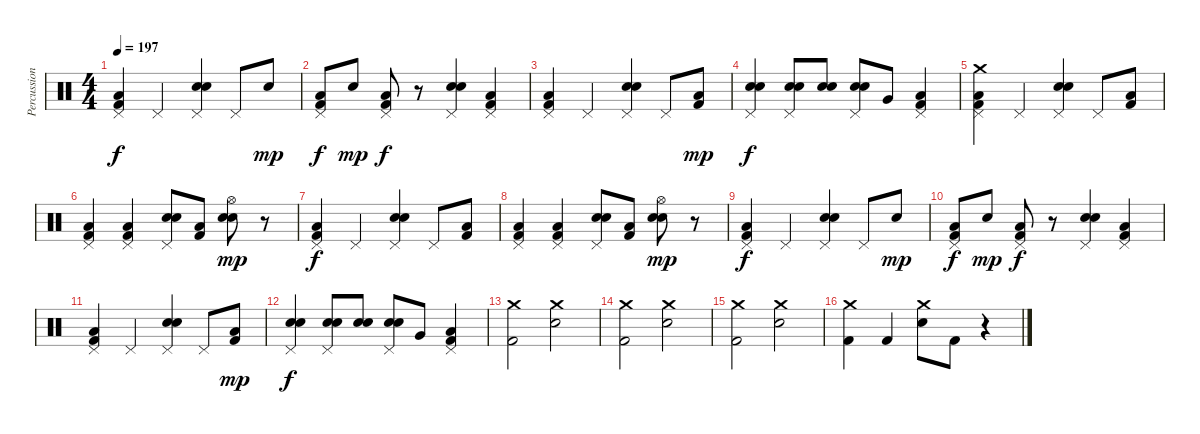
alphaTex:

\track ("Percussion" "Percussion") {instrument percussion}
\staff {score}
\articulation defaults
\ts (4 4)
\tempo 197
\clef neutral
\ks c
("Pedal Hi-Hat (hit)" "Kick (hit) 2" "Low Floor Tom (hit)").4{dy f} "Pedal Hi-Hat (hit)".4 ("Pedal Hi-Hat (hit)" "Electric Snare (hit)" "Snare (hit) 2").4 "Pedal Hi-Hat (hit)".8 "Snare (hit) 2".8{dy mp} |
("Pedal Hi-Hat (hit)" "Kick (hit) 2" "Low Floor Tom (hit)").8{dy f} "Snare (hit) 2".8{dy mp} ("Pedal Hi-Hat (hit)" "Kick (hit) 2" "Low Floor Tom (hit)").8{dy f} r.8 ("Pedal Hi-Hat (hit)" "Electric Snare (hit)" "Snare (hit) 2").4 ("Pedal Hi-Hat (hit)" "Kick (hit) 2" "Low Floor Tom (hit)").4 |
("Pedal Hi-Hat (hit)" "Kick (hit) 2" "Low Floor Tom (hit)").4 "Pedal Hi-Hat (hit)".4 ("Pedal Hi-Hat (hit)" "Electric Snare (hit)" "Snare (hit) 2").4 "Pedal Hi-Hat (hit)".8 ("Kick (hit) 2" "Low Floor Tom (hit)").8{dy mp} |
("Pedal Hi-Hat (hit)" "Electric Snare (hit)" "Snare (hit) 2").4{dy f} ("Pedal Hi-Hat (hit)" "Electric Snare (hit)" "Snare (hit) 2").8 ("Electric Snare (hit)" "Snare (hit) 2").8 ("Pedal Hi-Hat (hit)" "Electric Snare (hit)" "Snare (hit) 2").8 "Very Low Tom (hit)".8 ("Pedal Hi-Hat (hit)" "Kick (hit) 2" "Low Floor Tom (hit)").4 |
("Crash medium (hit)" "Pedal Hi-Hat (hit)" "Kick (hit) 2" "Low Floor Tom (hit)").4 "Pedal Hi-Hat (hit)".4 ("Pedal Hi-Hat (hit)" "Electric Snare (hit)" "Snare (hit) 2").4 "Pedal Hi-Hat (hit)".8 ("Kick (hit) 2" "Low Floor Tom (hit)").8 |
("Pedal Hi-Hat (hit)" "Kick (hit) 2" "Low Floor Tom (hit)").4 ("Pedal Hi-Hat (hit)" "Kick (hit) 2" "Low Floor Tom (hit)").4 ("Pedal Hi-Hat (hit)" "Electric Snare (hit)" "Snare (hit) 2").8 ("Kick (hit) 2" "Low Floor Tom (hit)").8 ("Hi-Hat (open)" "Electric Snare (hit)" "Snare (hit) 2").8{dy mp} r.8 |
("Pedal Hi-Hat (hit)" "Kick (hit) 2" "Low Floor Tom (hit)").4{dy f} "Pedal Hi-Hat (hit)".4 ("Pedal Hi-Hat (hit)" "Electric Snare (hit)" "Snare (hit) 2").4 "Pedal Hi-Hat (hit)".8 ("Kick (hit) 2" "Low Floor Tom (hit)").8 |
("Pedal Hi-Hat (hit)" "Kick (hit) 2" "Low Floor Tom (hit)").4 ("Pedal Hi-Hat (hit)" "Kick (hit) 2" "Low Floor Tom (hit)").4 ("Pedal Hi-Hat (hit)" "Electric Snare (hit)" "Snare (hit) 2").8 ("Kick (hit) 2" "Low Floor Tom (hit)").8 ("Hi-Hat (open)" "Electric Snare (hit)" "Snare (hit) 2").8{dy mp} r.8 |
("Pedal Hi-Hat (hit)" "Kick (hit) 2" "Low Floor Tom (hit)").4{dy f} "Pedal Hi-Hat (hit)".4 ("Pedal Hi-Hat (hit)" "Electric Snare (hit)" "Snare (hit) 2").4 "Pedal Hi-Hat (hit)".8 "Snare (hit) 2".8{dy mp} |
("Pedal Hi-Hat (hit)" "Kick (hit) 2" "Low Floor Tom (hit)").8{dy f} "Snare (hit) 2".8{dy mp} ("Pedal Hi-Hat (hit)" "Kick (hit) 2" "Low Floor Tom (hit)").8{dy f} r.8 ("Pedal Hi-Hat (hit)" "Electric Snare (hit)" "Snare (hit) 2").4 ("Pedal Hi-Hat (hit)" "Kick (hit) 2" "Low Floor Tom (hit)").4 |
("Pedal Hi-Hat (hit)" "Kick (hit) 2" "Low Floor Tom (hit)").4 "Pedal Hi-Hat (hit)".4 ("Pedal Hi-Hat (hit)" "Electric Snare (hit)" "Snare (hit) 2").4 "Pedal Hi-Hat (hit)".8 ("Kick (hit) 2" "Low Floor Tom (hit)").8{dy mp} |
("Pedal Hi-Hat (hit)" "Electric Snare (hit)" "Snare (hit) 2").4{dy f} ("Pedal Hi-Hat (hit)" "Electric Snare (hit)" "Snare (hit) 2").8 ("Electric Snare (hit)" "Snare (hit) 2").8 ("Pedal Hi-Hat (hit)" "Electric Snare (hit)" "Snare (hit) 2").8 "Very Low Tom (hit)".8 ("Pedal Hi-Hat (hit)" "Kick (hit) 2" "Low Floor Tom (hit)").4 |
("Crash medium (hit)" "Kick (hit) 2").2 ("Crash medium (hit)" "Snare (hit) 2").2 |
("Crash medium (hit)" "Kick (hit) 2").2 ("Crash medium (hit)" "Snare (hit) 2").2 |
("Crash medium (hit)" "Kick (hit) 2").2 ("Crash medium (hit)" "Snare (hit) 2").2 |
("Crash medium (hit)" "Kick (hit) 2").4 "Kick (hit) 2".4 ("Crash medium (hit)" "Snare (hit) 2").8 "Kick (hit) 2".8 r.4
